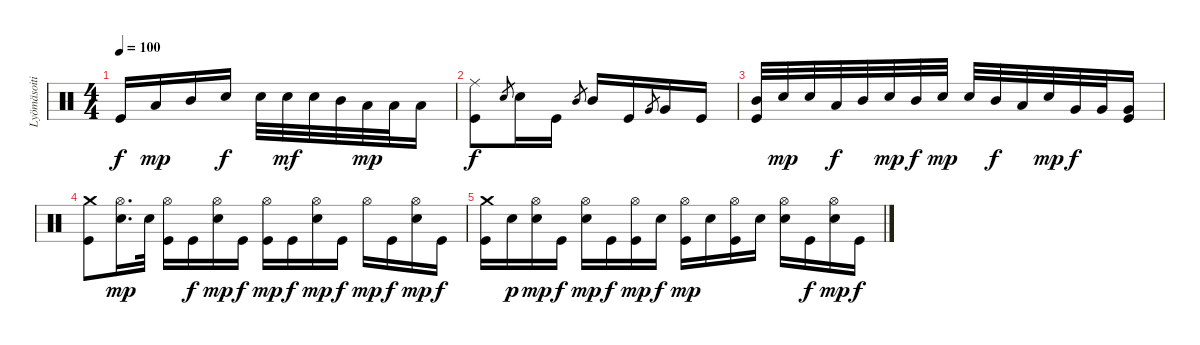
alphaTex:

\track ("Lyömäsoitin" "Lyömäsoiti") {instrument percussion}
\staff {score}
\articulation defaults
\ts (4 4)
\tempo 100
\clef neutral
\ks c "Kick (hit)".16{dy f} "Low Tom (hit)".16{dy mp} "Mid Tom (hit)".16 "Electric Snare (hit)".16{dy f} "Electric Snare (hit)".32 "Electric Snare (hit)".32{dy mf} "Electric Snare (hit)".32 "Mid Tom (hit)".32 "Low Tom (hit)".32{dy mp} "Low Tom (hit)".32 "Low Tom (hit)".16
|
("Ride (middle)" "Kick (hit)").8{dy f} "Electric Snare (hit)".8{gr} "Electric Snare (hit)".16 "Kick (hit)".16 "Mid Tom (hit)".8{gr} "Mid Tom (hit)".16 "Kick (hit)".16 "Very Low Tom (hit)".8{gr} "Very Low Tom (hit)".16 "Kick (hit)".16 |
("Mid Tom (hit)" "Kick (hit)").32 "Electric Snare (hit)".32{dy mp} "Electric Snare (hit)".32 "Low Tom (hit)".32{dy f} "Mid Tom (hit)".32 "Electric Snare (hit)".32{dy mp} "Mid Tom (hit)".32{dy f} "Electric Snare (hit)".32{dy mp} "Electric Snare (hit)".32 "Mid Tom (hit)".32{dy f} "Low Tom (hit)".32 "Electric Snare (hit)".32{dy mp} "Very Low Tom (hit)".32{dy f} "Very Low Tom (hit)".32 ("Very Low Tom (hit)" "Kick (hit)").16 |
("Crash medium (hit)" "Kick (hit)").8 ("Hi-Hat (open)" "Electric Snare (hit)").16{d dy mp} "Electric Snare (hit)".32 ("Hi-Hat (open)" "Kick (hit)").16 "Kick (hit)".16{dy f} ("Hi-Hat (open)" "Electric Snare (hit)").16{dy mp} "Kick (hit)".16{dy f} ("Hi-Hat (open)" "Kick (hit)").16{dy mp} "Kick (hit)".16{dy f} ("Hi-Hat (open)" "Electric Snare (hit)").16{dy mp} "Kick (hit)".16{dy f} "Hi-Hat (open)".16{dy mp} "Kick (hit)".16{dy f} ("Hi-Hat (open)" "Electric Snare (hit)").16{dy mp} "Kick (hit)".16{dy f} |
("Crash medium (hit)" "Kick (hit)").16 "Electric Snare (hit)".16{dy p} ("Hi-Hat (open)" "Electric Snare (hit)").16{dy mp} "Kick (hit)".16{dy f} ("Hi-Hat (open)" "Electric Snare (hit)").16{dy mp} "Kick (hit)".16{dy f} ("Hi-Hat (open)" "Kick (hit)").16{dy mp} "Electric Snare (hit)".16{dy f} ("Hi-Hat (open)" "Kick (hit)").16{dy mp} "Electric Snare (hit)".16 ("Hi-Hat (open)" "Kick (hit)").16 "Electric Snare (hit)".16 ("Hi-Hat (open)" "Electric Snare (hit)").16 "Kick (hit)".16{dy f} ("Hi-Hat (open)" "Electric Snare (hit)").16{dy mp} "Kick (hit)".16{dy f}
